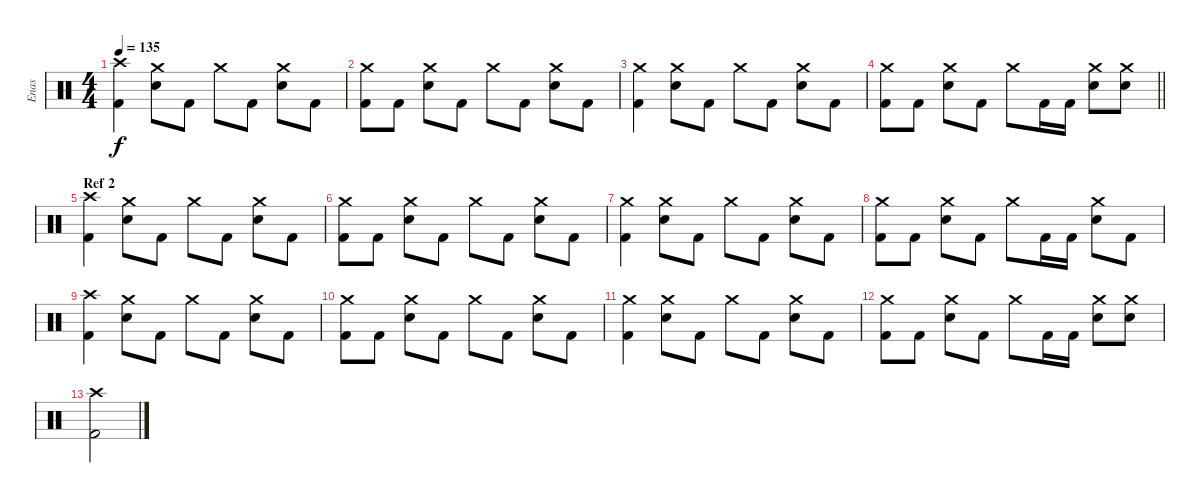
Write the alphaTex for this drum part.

\track ("Enas" "Enas") {instrument percussion}
\staff {score}
\articulation defaults
\ts (4 4)
\tempo 135
\clef neutral
\ks c
("Kick (hit) 2" "Crash high (hit)").4{dy f} ("Snare (hit) 2" "Crash medium (hit)").8 "Kick (hit) 2".8 "Crash medium (hit)".8 "Kick (hit) 2".8 ("Snare (hit) 2" "Crash medium (hit)").8 "Kick (hit) 2".8 |
("Kick (hit) 2" "Crash medium (hit)").8 "Kick (hit) 2".8 ("Snare (hit) 2" "Crash medium (hit)").8 "Kick (hit) 2".8 "Crash medium (hit)".8 "Kick (hit) 2".8 ("Snare (hit) 2" "Crash medium (hit)").8 "Kick (hit) 2".8 |
("Kick (hit) 2" "Crash medium (hit)").4 ("Snare (hit) 2" "Crash medium (hit)").8 "Kick (hit) 2".8 "Crash medium (hit)".8 "Kick (hit) 2".8 ("Snare (hit) 2" "Crash medium (hit)").8 "Kick (hit) 2".8 |
\barLineRight lightlight
("Kick (hit) 2" "Crash medium (hit)").8 "Kick (hit) 2".8 ("Snare (hit) 2" "Crash medium (hit)").8 "Kick (hit) 2".8 "Crash medium (hit)".8 "Kick (hit) 2".16 "Kick (hit) 2".16 ("Snare (hit) 2" "Crash medium (hit)").8 ("Snare (hit) 2" "Crash medium (hit)").8 |
\section ("" "Ref 2")
("Kick (hit) 2" "Crash high (hit)").4 ("Snare (hit) 2" "Crash medium (hit)").8 "Kick (hit) 2".8 "Crash medium (hit)".8 "Kick (hit) 2".8 ("Snare (hit) 2" "Crash medium (hit)").8 "Kick (hit) 2".8 |
("Kick (hit) 2" "Crash medium (hit)").8 "Kick (hit) 2".8 ("Snare (hit) 2" "Crash medium (hit)").8 "Kick (hit) 2".8 "Crash medium (hit)".8 "Kick (hit) 2".8 ("Snare (hit) 2" "Crash medium (hit)").8 "Kick (hit) 2".8 |
("Kick (hit) 2" "Crash medium (hit)").4 ("Snare (hit) 2" "Crash medium (hit)").8 "Kick (hit) 2".8 "Crash medium (hit)".8 "Kick (hit) 2".8 ("Snare (hit) 2" "Crash medium (hit)").8 "Kick (hit) 2".8 |
("Kick (hit) 2" "Crash medium (hit)").8 "Kick (hit) 2".8 ("Snare (hit) 2" "Crash medium (hit)").8 "Kick (hit) 2".8 "Crash medium (hit)".8 "Kick (hit) 2".16 "Kick (hit) 2".16 ("Snare (hit) 2" "Crash medium (hit)").8 "Kick (hit) 2".8 |
("Kick (hit) 2" "Crash high (hit)").4 ("Snare (hit) 2" "Crash medium (hit)").8 "Kick (hit) 2".8 "Crash medium (hit)".8 "Kick (hit) 2".8 ("Snare (hit) 2" "Crash medium (hit)").8 "Kick (hit) 2".8 |
("Kick (hit) 2" "Crash medium (hit)").8 "Kick (hit) 2".8 ("Snare (hit) 2" "Crash medium (hit)").8 "Kick (hit) 2".8 "Crash medium (hit)".8 "Kick (hit) 2".8 ("Snare (hit) 2" "Crash medium (hit)").8 "Kick (hit) 2".8 |
("Kick (hit) 2" "Crash medium (hit)").4 ("Snare (hit) 2" "Crash medium (hit)").8 "Kick (hit) 2".8 "Crash medium (hit)".8 "Kick (hit) 2".8 ("Snare (hit) 2" "Crash medium (hit)").8 "Kick (hit) 2".8 |
("Kick (hit) 2" "Crash medium (hit)").8 "Kick (hit) 2".8 ("Snare (hit) 2" "Crash medium (hit)").8 "Kick (hit) 2".8 "Crash medium (hit)".8 "Kick (hit) 2".16 "Kick (hit) 2".16 ("Snare (hit) 2" "Crash medium (hit)").8 ("Snare (hit) 2" "Crash medium (hit)").8 |
("Crash high (hit)" "Kick (hit) 2").2
